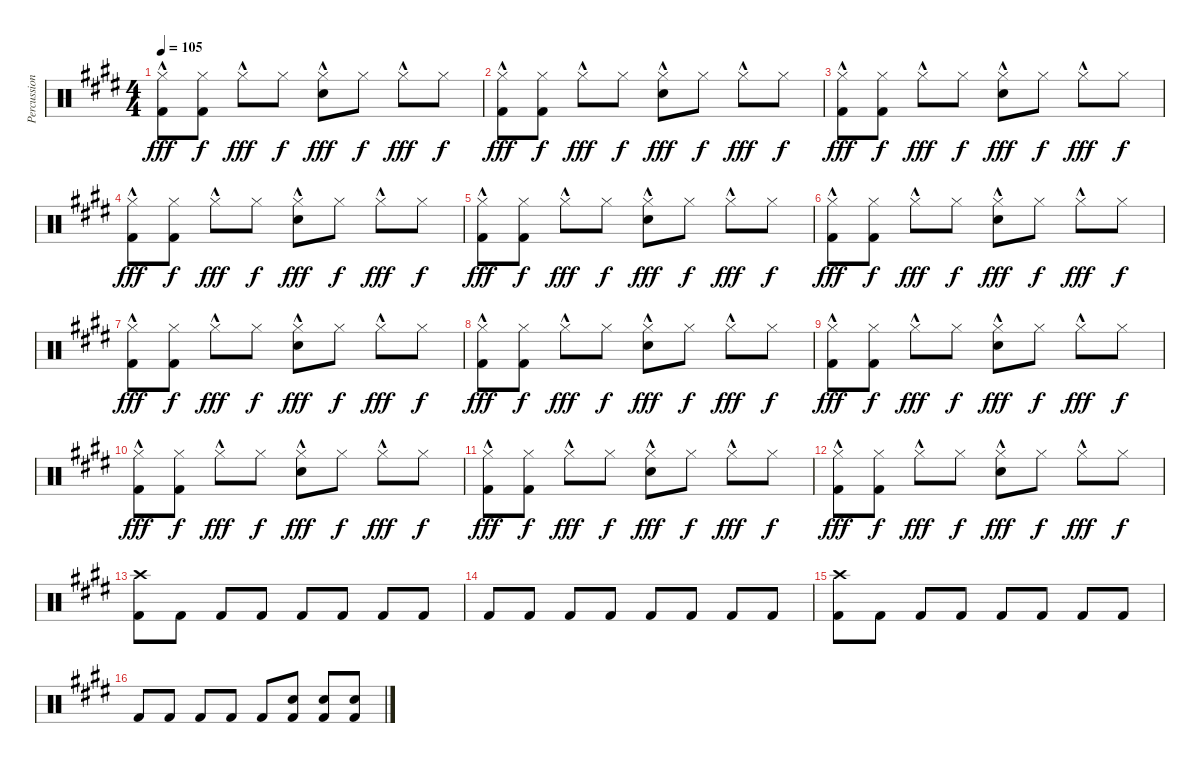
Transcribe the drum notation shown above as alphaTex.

\track ("Percussion" "Percussion") {instrument percussion}
\staff {score}
\articulation defaults
\ts (4 4)
\tempo 105
\clef neutral
\ks c#minor
("Hi-Hat (closed)"{hac} "Kick (hit) 2").8{dy fff} ("Hi-Hat (closed)" "Kick (hit) 2").8{dy f} "Hi-Hat (closed)"{hac}.8{dy fff} "Hi-Hat (closed)".8{dy f} ("Hi-Hat (closed)"{hac} "Snare (hit) 2").8{dy fff} "Hi-Hat (closed)".8{dy f} "Hi-Hat (closed)"{hac}.8{dy fff} "Hi-Hat (closed)".8{dy f} |
("Hi-Hat (closed)"{hac} "Kick (hit) 2").8{dy fff} ("Hi-Hat (closed)" "Kick (hit) 2").8{dy f} "Hi-Hat (closed)"{hac}.8{dy fff} "Hi-Hat (closed)".8{dy f} ("Hi-Hat (closed)"{hac} "Snare (hit) 2").8{dy fff} "Hi-Hat (closed)".8{dy f} "Hi-Hat (closed)"{hac}.8{dy fff} "Hi-Hat (closed)".8{dy f} |
("Hi-Hat (closed)"{hac} "Kick (hit) 2").8{dy fff} ("Hi-Hat (closed)" "Kick (hit) 2").8{dy f} "Hi-Hat (closed)"{hac}.8{dy fff} "Hi-Hat (closed)".8{dy f} ("Hi-Hat (closed)"{hac} "Snare (hit) 2").8{dy fff} "Hi-Hat (closed)".8{dy f} "Hi-Hat (closed)"{hac}.8{dy fff} "Hi-Hat (closed)".8{dy f} |
("Hi-Hat (closed)"{hac} "Kick (hit) 2").8{dy fff} ("Hi-Hat (closed)" "Kick (hit) 2").8{dy f} "Hi-Hat (closed)"{hac}.8{dy fff} "Hi-Hat (closed)".8{dy f} ("Hi-Hat (closed)"{hac} "Snare (hit) 2").8{dy fff} "Hi-Hat (closed)".8{dy f} "Hi-Hat (closed)"{hac}.8{dy fff} "Hi-Hat (closed)".8{dy f} |
("Hi-Hat (closed)"{hac} "Kick (hit) 2").8{dy fff} ("Hi-Hat (closed)" "Kick (hit) 2").8{dy f} "Hi-Hat (closed)"{hac}.8{dy fff} "Hi-Hat (closed)".8{dy f} ("Hi-Hat (closed)"{hac} "Snare (hit) 2").8{dy fff} "Hi-Hat (closed)".8{dy f} "Hi-Hat (closed)"{hac}.8{dy fff} "Hi-Hat (closed)".8{dy f} |
("Hi-Hat (closed)"{hac} "Kick (hit) 2").8{dy fff} ("Hi-Hat (closed)" "Kick (hit) 2").8{dy f} "Hi-Hat (closed)"{hac}.8{dy fff} "Hi-Hat (closed)".8{dy f} ("Hi-Hat (closed)"{hac} "Snare (hit) 2").8{dy fff} "Hi-Hat (closed)".8{dy f} "Hi-Hat (closed)"{hac}.8{dy fff} "Hi-Hat (closed)".8{dy f} |
("Hi-Hat (closed)"{hac} "Kick (hit) 2").8{dy fff} ("Hi-Hat (closed)" "Kick (hit) 2").8{dy f} "Hi-Hat (closed)"{hac}.8{dy fff} "Hi-Hat (closed)".8{dy f} ("Hi-Hat (closed)"{hac} "Snare (hit) 2").8{dy fff} "Hi-Hat (closed)".8{dy f} "Hi-Hat (closed)"{hac}.8{dy fff} "Hi-Hat (closed)".8{dy f} |
("Hi-Hat (closed)"{hac} "Kick (hit) 2").8{dy fff} ("Hi-Hat (closed)" "Kick (hit) 2").8{dy f} "Hi-Hat (closed)"{hac}.8{dy fff} "Hi-Hat (closed)".8{dy f} ("Hi-Hat (closed)"{hac} "Snare (hit) 2").8{dy fff} "Hi-Hat (closed)".8{dy f} "Hi-Hat (closed)"{hac}.8{dy fff} "Hi-Hat (closed)".8{dy f} |
("Hi-Hat (closed)"{hac} "Kick (hit) 2").8{dy fff} ("Hi-Hat (closed)" "Kick (hit) 2").8{dy f} "Hi-Hat (closed)"{hac}.8{dy fff} "Hi-Hat (closed)".8{dy f} ("Hi-Hat (closed)"{hac} "Snare (hit) 2").8{dy fff} "Hi-Hat (closed)".8{dy f} "Hi-Hat (closed)"{hac}.8{dy fff} "Hi-Hat (closed)".8{dy f} |
("Hi-Hat (closed)"{hac} "Kick (hit) 2").8{dy fff} ("Hi-Hat (closed)" "Kick (hit) 2").8{dy f} "Hi-Hat (closed)"{hac}.8{dy fff} "Hi-Hat (closed)".8{dy f} ("Hi-Hat (closed)"{hac} "Snare (hit) 2").8{dy fff} "Hi-Hat (closed)".8{dy f} "Hi-Hat (closed)"{hac}.8{dy fff} "Hi-Hat (closed)".8{dy f} |
("Hi-Hat (closed)"{hac} "Kick (hit) 2").8{dy fff} ("Hi-Hat (closed)" "Kick (hit) 2").8{dy f} "Hi-Hat (closed)"{hac}.8{dy fff} "Hi-Hat (closed)".8{dy f} ("Hi-Hat (closed)"{hac} "Snare (hit) 2").8{dy fff} "Hi-Hat (closed)".8{dy f} "Hi-Hat (closed)"{hac}.8{dy fff} "Hi-Hat (closed)".8{dy f} |
("Hi-Hat (closed)"{hac} "Kick (hit) 2").8{dy fff} ("Hi-Hat (closed)" "Kick (hit) 2").8{dy f} "Hi-Hat (closed)"{hac}.8{dy fff} "Hi-Hat (closed)".8{dy f} ("Hi-Hat (closed)"{hac} "Snare (hit) 2").8{dy fff} "Hi-Hat (closed)".8{dy f} "Hi-Hat (closed)"{hac}.8{dy fff} "Hi-Hat (closed)".8{dy f} |
("Crash high (hit)" "Kick (hit) 2").8 "Kick (hit) 2".8 "Kick (hit) 2".8 "Kick (hit) 2".8 "Kick (hit) 2".8 "Kick (hit) 2".8 "Kick (hit) 2".8 "Kick (hit) 2".8 |
"Kick (hit) 2".8 "Kick (hit) 2".8 "Kick (hit) 2".8 "Kick (hit) 2".8 "Kick (hit) 2".8 "Kick (hit) 2".8 "Kick (hit) 2".8 "Kick (hit) 2".8 |
("Crash high (hit)" "Kick (hit) 2").8 "Kick (hit) 2".8 "Kick (hit) 2".8 "Kick (hit) 2".8 "Kick (hit) 2".8 "Kick (hit) 2".8 "Kick (hit) 2".8 "Kick (hit) 2".8 |
"Kick (hit) 2".8 "Kick (hit) 2".8 "Kick (hit) 2".8 "Kick (hit) 2".8 "Kick (hit) 2".8 ("Snare (hit) 2" "Kick (hit) 2").8 ("Snare (hit) 2" "Kick (hit) 2").8 ("Snare (hit) 2" "Kick (hit) 2").8
